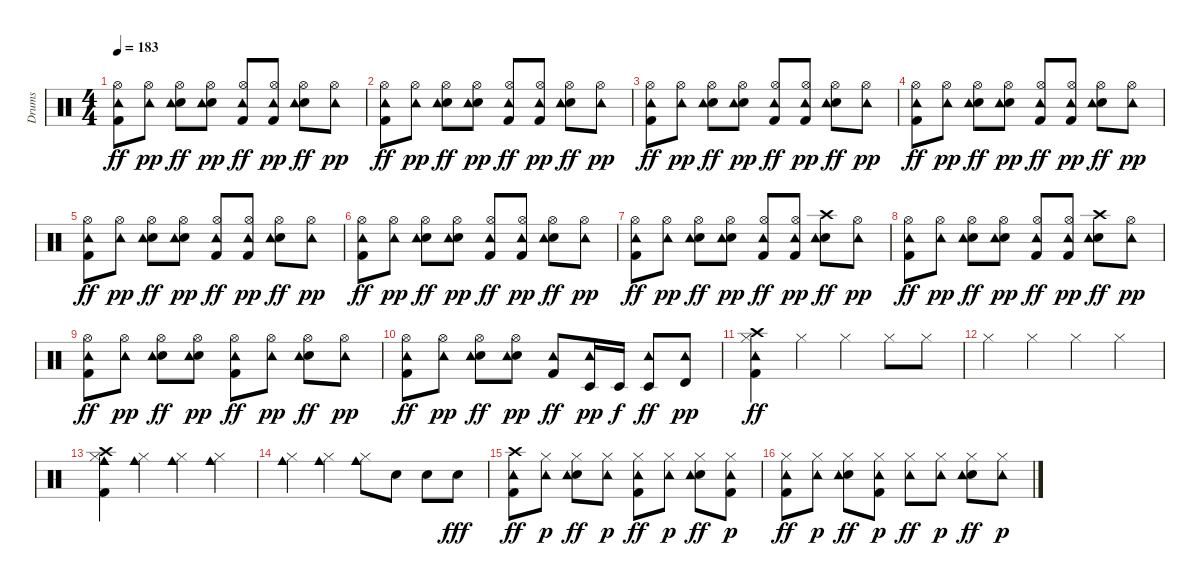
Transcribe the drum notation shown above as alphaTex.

\track ("Drums" "Drums") {instrument percussion}
\staff {score}
\articulation defaults
\ts (4 4)
\tempo 183
\clef neutral
\ks c
("Kick (hit) 2" "Hi-Hat (open)" "Tambourine (hit)").8{dy ff} ("Hi-Hat (open)" "Tambourine (hit)").8{dy pp} ("Snare (hit) 2" "Hi-Hat (open)" "Tambourine (hit)").8{dy ff} ("Snare (hit) 2" "Hi-Hat (open)" "Tambourine (hit)").8{dy pp} ("Kick (hit) 2" "Hi-Hat (open)" "Tambourine (hit)").8{dy ff} ("Kick (hit) 2" "Hi-Hat (open)" "Tambourine (hit)").8{dy pp} ("Snare (hit) 2" "Hi-Hat (open)" "Tambourine (hit)").8{dy ff} ("Hi-Hat (open)" "Tambourine (hit)").8{dy pp} |
("Kick (hit) 2" "Hi-Hat (open)" "Tambourine (hit)").8{dy ff} ("Hi-Hat (open)" "Tambourine (hit)").8{dy pp} ("Snare (hit) 2" "Hi-Hat (open)" "Tambourine (hit)").8{dy ff} ("Snare (hit) 2" "Hi-Hat (open)" "Tambourine (hit)").8{dy pp} ("Kick (hit) 2" "Hi-Hat (open)" "Tambourine (hit)").8{dy ff} ("Kick (hit) 2" "Hi-Hat (open)" "Tambourine (hit)").8{dy pp} ("Snare (hit) 2" "Hi-Hat (open)" "Tambourine (hit)").8{dy ff} ("Hi-Hat (open)" "Tambourine (hit)").8{dy pp} |
("Kick (hit) 2" "Hi-Hat (open)" "Tambourine (hit)").8{dy ff} ("Hi-Hat (open)" "Tambourine (hit)").8{dy pp} ("Snare (hit) 2" "Hi-Hat (open)" "Tambourine (hit)").8{dy ff} ("Snare (hit) 2" "Hi-Hat (open)" "Tambourine (hit)").8{dy pp} ("Kick (hit) 2" "Hi-Hat (open)" "Tambourine (hit)").8{dy ff} ("Kick (hit) 2" "Hi-Hat (open)" "Tambourine (hit)").8{dy pp} ("Snare (hit) 2" "Hi-Hat (open)" "Tambourine (hit)").8{dy ff} ("Hi-Hat (open)" "Tambourine (hit)").8{dy pp} |
("Kick (hit) 2" "Hi-Hat (open)" "Tambourine (hit)").8{dy ff} ("Hi-Hat (open)" "Tambourine (hit)").8{dy pp} ("Snare (hit) 2" "Hi-Hat (open)" "Tambourine (hit)").8{dy ff} ("Snare (hit) 2" "Hi-Hat (open)" "Tambourine (hit)").8{dy pp} ("Kick (hit) 2" "Hi-Hat (open)" "Tambourine (hit)").8{dy ff} ("Kick (hit) 2" "Hi-Hat (open)" "Tambourine (hit)").8{dy pp} ("Snare (hit) 2" "Hi-Hat (open)" "Tambourine (hit)").8{dy ff} ("Hi-Hat (open)" "Tambourine (hit)").8{dy pp} |
("Kick (hit) 2" "Hi-Hat (open)" "Tambourine (hit)").8{dy ff} ("Hi-Hat (open)" "Tambourine (hit)").8{dy pp} ("Snare (hit) 2" "Hi-Hat (open)" "Tambourine (hit)").8{dy ff} ("Snare (hit) 2" "Hi-Hat (open)" "Tambourine (hit)").8{dy pp} ("Kick (hit) 2" "Hi-Hat (open)" "Tambourine (hit)").8{dy ff} ("Kick (hit) 2" "Hi-Hat (open)" "Tambourine (hit)").8{dy pp} ("Snare (hit) 2" "Hi-Hat (open)" "Tambourine (hit)").8{dy ff} ("Hi-Hat (open)" "Tambourine (hit)").8{dy pp} |
("Kick (hit) 2" "Hi-Hat (open)" "Tambourine (hit)").8{dy ff} ("Hi-Hat (open)" "Tambourine (hit)").8{dy pp} ("Snare (hit) 2" "Hi-Hat (open)" "Tambourine (hit)").8{dy ff} ("Snare (hit) 2" "Hi-Hat (open)" "Tambourine (hit)").8{dy pp} ("Kick (hit) 2" "Hi-Hat (open)" "Tambourine (hit)").8{dy ff} ("Kick (hit) 2" "Hi-Hat (open)" "Tambourine (hit)").8{dy pp} ("Snare (hit) 2" "Hi-Hat (open)" "Tambourine (hit)").8{dy ff} ("Hi-Hat (open)" "Tambourine (hit)").8{dy pp} |
("Kick (hit) 2" "Hi-Hat (open)" "Tambourine (hit)").8{dy ff} ("Hi-Hat (open)" "Tambourine (hit)").8{dy pp} ("Snare (hit) 2" "Hi-Hat (open)" "Tambourine (hit)").8{dy ff} ("Snare (hit) 2" "Hi-Hat (open)" "Tambourine (hit)").8{dy pp} ("Kick (hit) 2" "Hi-Hat (open)" "Tambourine (hit)").8{dy ff} ("Kick (hit) 2" "Hi-Hat (open)" "Tambourine (hit)").8{dy pp} ("Snare (hit) 2" "Crash high (hit)" "Tambourine (hit)").8{dy ff} ("Hi-Hat (open)" "Tambourine (hit)").8{dy pp} |
("Kick (hit) 2" "Hi-Hat (open)" "Tambourine (hit)").8{dy ff} ("Hi-Hat (open)" "Tambourine (hit)").8{dy pp} ("Snare (hit) 2" "Hi-Hat (open)" "Tambourine (hit)").8{dy ff} ("Snare (hit) 2" "Hi-Hat (open)" "Tambourine (hit)").8{dy pp} ("Kick (hit) 2" "Hi-Hat (open)" "Tambourine (hit)").8{dy ff} ("Kick (hit) 2" "Hi-Hat (open)" "Tambourine (hit)").8{dy pp} ("Snare (hit) 2" "Crash high (hit)" "Tambourine (hit)").8{dy ff} ("Hi-Hat (open)" "Tambourine (hit)").8{dy pp} |
("Kick (hit) 2" "Hi-Hat (open)" "Tambourine (hit)").8{dy ff} ("Hi-Hat (open)" "Tambourine (hit)").8{dy pp} ("Snare (hit) 2" "Hi-Hat (open)" "Tambourine (hit)").8{dy ff} ("Snare (hit) 2" "Hi-Hat (open)" "Tambourine (hit)").8{dy pp} ("Kick (hit) 2" "Hi-Hat (open)" "Tambourine (hit)").8{dy ff} ("Hi-Hat (open)" "Tambourine (hit)").8{dy pp} ("Snare (hit) 2" "Hi-Hat (open)" "Tambourine (hit)").8{dy ff} ("Hi-Hat (open)" "Tambourine (hit)").8{dy pp} |
("Kick (hit) 2" "Hi-Hat (open)" "Tambourine (hit)").8{dy ff} ("Hi-Hat (open)" "Tambourine (hit)").8{dy pp} ("Snare (hit) 2" "Hi-Hat (open)" "Tambourine (hit)").8{dy ff} ("Snare (hit) 2" "Hi-Hat (open)" "Tambourine (hit)").8{dy pp} ("Kick (hit) 2" "Tambourine (hit)").8{dy ff} ("Timbale low (hit)" "Tambourine (hit)").16{dy pp} "Timbale low (hit)".16{dy f} ("Timbale low (hit)" "Tambourine (hit)").8{dy ff} ("Timbale high (hit)" "Tambourine (hit)").8{dy pp} |
("Kick (hit) 2" "Hi-Hat (closed)" "Crash high (hit)" "Tambourine (hit)").4{dy ff} "Hi-Hat (closed)".4 "Hi-Hat (closed)".4 "Hi-Hat (closed)".8 "Hi-Hat (closed)".8 |
"Hi-Hat (closed)".4 "Hi-Hat (closed)".4 "Hi-Hat (closed)".4 "Hi-Hat (closed)".4 |
("Cowbell medium (hit)" "Kick (hit) 2" "Hi-Hat (closed)" "Crash high (hit)").4 ("Cowbell medium (hit)" "Hi-Hat (closed)").4 ("Cowbell medium (hit)" "Hi-Hat (closed)").4 ("Cowbell medium (hit)" "Hi-Hat (closed)").4 |
("Cowbell medium (hit)" "Hi-Hat (closed)").4 ("Cowbell medium (hit)" "Hi-Hat (closed)").4 ("Cowbell medium (hit)" "Hi-Hat (closed)").8 "Snare (hit) 2".8 "Snare (hit) 2".8 "Snare (hit) 2".8{dy fff} |
("Kick (hit) 2" "Crash high (hit)" "Tambourine (hit)").8{dy ff} ("Hi-Hat (closed)" "Tambourine (hit)").8{dy p} ("Snare (hit) 2" "Hi-Hat (closed)" "Tambourine (hit)").8{dy ff} ("Hi-Hat (closed)" "Tambourine (hit)").8{dy p} ("Kick (hit) 2" "Hi-Hat (closed)" "Tambourine (hit)").8{dy ff} ("Hi-Hat (closed)" "Tambourine (hit)").8{dy p} ("Snare (hit) 2" "Hi-Hat (closed)" "Tambourine (hit)").8{dy ff} ("Kick (hit) 2" "Hi-Hat (closed)" "Tambourine (hit)").8{dy p} |
("Kick (hit) 2" "Hi-Hat (closed)" "Tambourine (hit)").8{dy ff} ("Hi-Hat (closed)" "Tambourine (hit)").8{dy p} ("Snare (hit) 2" "Hi-Hat (closed)" "Tambourine (hit)").8{dy ff} ("Kick (hit) 2" "Hi-Hat (closed)" "Tambourine (hit)").8{dy p} ("Hi-Hat (closed)" "Tambourine (hit)").8{dy ff} ("Hi-Hat (closed)" "Tambourine (hit)").8{dy p} ("Snare (hit) 2" "Hi-Hat (closed)" "Tambourine (hit)").8{dy ff} ("Hi-Hat (closed)" "Tambourine (hit)").8{dy p}
